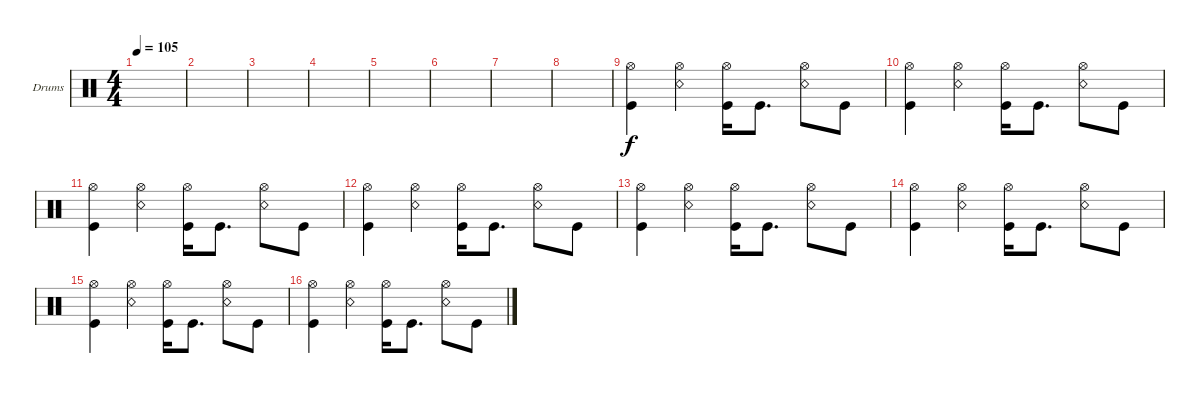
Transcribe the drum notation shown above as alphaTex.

\defaultSystemsLayout 4
\bracketExtendMode groupsimilarinstruments
\firstSystemTrackNameOrientation horizontal
\otherSystemsTrackNameOrientation horizontal
\track ("Drumkit" "Drums") {instrument percussion}
\staff {score}
\articulation defaults
\ts (4 4)
\tempo 105
\clef neutral
\ks c
|
|
|
|
|
|
|
|
("Hi-Hat (open)" "Kick (hit)").4 ("Hi-Hat (open)" "Snare (rim shot)").4 ("Kick (hit)" "Hi-Hat (open)").16 "Kick (hit)".8{d} ("Snare (rim shot)" "Hi-Hat (open)").8 "Kick (hit)".8 |
("Hi-Hat (open)" "Kick (hit)").4 ("Hi-Hat (open)" "Snare (rim shot)").4 ("Kick (hit)" "Hi-Hat (open)").16 "Kick (hit)".8{d} ("Snare (rim shot)" "Hi-Hat (open)").8 "Kick (hit)".8 |
("Hi-Hat (open)" "Kick (hit)").4 ("Hi-Hat (open)" "Snare (rim shot)").4 ("Kick (hit)" "Hi-Hat (open)").16 "Kick (hit)".8{d} ("Snare (rim shot)" "Hi-Hat (open)").8 "Kick (hit)".8 |
("Hi-Hat (open)" "Kick (hit)").4 ("Hi-Hat (open)" "Snare (rim shot)").4 ("Kick (hit)" "Hi-Hat (open)").16 "Kick (hit)".8{d} ("Snare (rim shot)" "Hi-Hat (open)").8 "Kick (hit)".8 |
("Hi-Hat (open)" "Kick (hit)").4 ("Hi-Hat (open)" "Snare (rim shot)").4 ("Kick (hit)" "Hi-Hat (open)").16 "Kick (hit)".8{d} ("Snare (rim shot)" "Hi-Hat (open)").8 "Kick (hit)".8 |
("Hi-Hat (open)" "Kick (hit)").4 ("Hi-Hat (open)" "Snare (rim shot)").4 ("Kick (hit)" "Hi-Hat (open)").16 "Kick (hit)".8{d} ("Snare (rim shot)" "Hi-Hat (open)").8 "Kick (hit)".8 |
("Hi-Hat (open)" "Kick (hit)").4 ("Hi-Hat (open)" "Snare (rim shot)").4 ("Kick (hit)" "Hi-Hat (open)").16 "Kick (hit)".8{d} ("Snare (rim shot)" "Hi-Hat (open)").8 "Kick (hit)".8 |
("Hi-Hat (open)" "Kick (hit)").4 ("Hi-Hat (open)" "Snare (rim shot)").4 ("Kick (hit)" "Hi-Hat (open)").16 "Kick (hit)".8{d} ("Snare (rim shot)" "Hi-Hat (open)").8 "Kick (hit)".8
